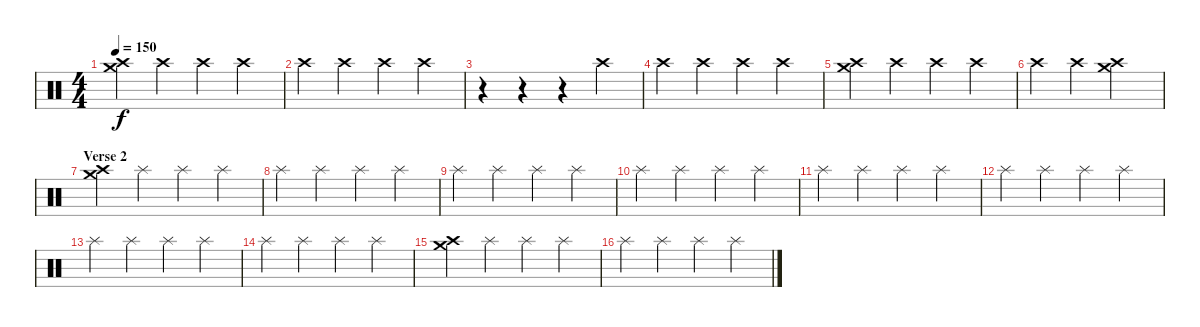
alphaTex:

\track "" {instrument percussion}
\staff {score}
\articulation defaults
\ts (4 4)
\tempo 150
\clef neutral
\ks c
("Crash medium (hit)" "Crash high (hit)").4{dy f} "Crash high (hit)".4 "Crash high (hit)".4 "Crash high (hit)".4 |
"Crash high (hit)".4 "Crash high (hit)".4 "Crash high (hit)".4 "Crash high (hit)".4 |
r.4 r.4 r.4 "Crash high (hit)".4 |
"Crash high (hit)".4 "Crash high (hit)".4 "Crash high (hit)".4 "Crash high (hit)".4 |
("Crash medium (hit)" "Crash high (hit)").4 "Crash high (hit)".4 "Crash high (hit)".4 "Crash high (hit)".4 |
"Crash high (hit)".4 "Crash high (hit)".4 ("Crash medium (hit)" "Crash high (hit)").2 |
\section ("" "Verse 2")
("Crash medium (hit)" "Crash high (hit)").4 "Splash (hit)".4 "Splash (hit)".4 "Splash (hit)".4 |
"Splash (hit)".4 "Splash (hit)".4 "Splash (hit)".4 "Splash (hit)".4 |
"Splash (hit)".4 "Splash (hit)".4 "Splash (hit)".4 "Splash (hit)".4 |
"Splash (hit)".4 "Splash (hit)".4 "Splash (hit)".4 "Splash (hit)".4 |
"Splash (hit)".4 "Splash (hit)".4 "Splash (hit)".4 "Splash (hit)".4 |
"Splash (hit)".4 "Splash (hit)".4 "Splash (hit)".4 "Splash (hit)".4 |
"Splash (hit)".4 "Splash (hit)".4 "Splash (hit)".4 "Splash (hit)".4 |
"Splash (hit)".4 "Splash (hit)".4 "Splash (hit)".4 "Splash (hit)".4 |
("Crash medium (hit)" "Crash high (hit)").4 "Splash (hit)".4 "Splash (hit)".4 "Splash (hit)".4 |
"Splash (hit)".4 "Splash (hit)".4 "Splash (hit)".4 "Splash (hit)".4
